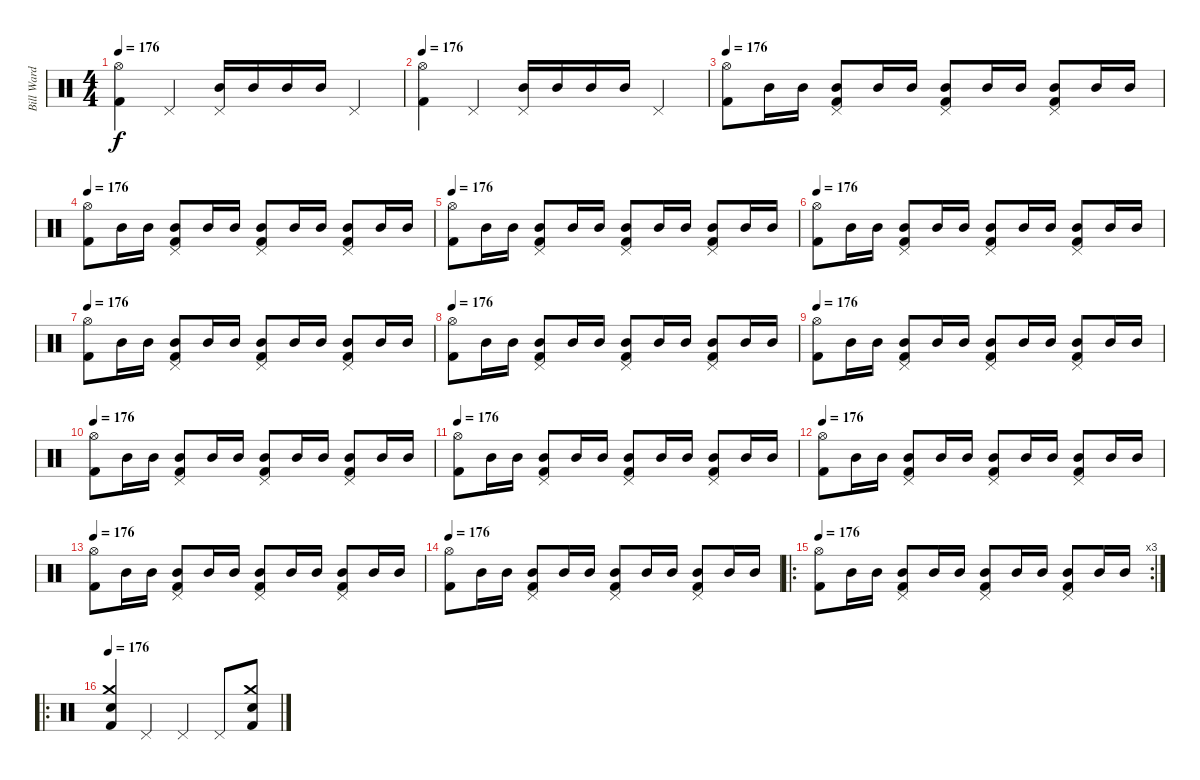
\track ("Bill Ward" "Bill Ward") {instrument percussion}
\staff {score}
\articulation defaults
\ts (4 4)
\tempo 176
\clef neutral
\ks c
("Hi-Hat (open)" "Kick (hit) 2").4{dy f} "Pedal Hi-Hat (hit)".4 ("Pedal Hi-Hat (hit)" "Mid Tom (hit)").16 "Mid Tom (hit)".16 "Mid Tom (hit)".16 "Mid Tom (hit)".16 "Pedal Hi-Hat (hit)".4 |
\tempo 176
("Hi-Hat (open)" "Kick (hit) 2").4 "Pedal Hi-Hat (hit)".4 ("Pedal Hi-Hat (hit)" "Mid Tom (hit)").16 "Mid Tom (hit)".16 "Mid Tom (hit)".16 "Mid Tom (hit)".16 "Pedal Hi-Hat (hit)".4 |
\tempo 176
("Hi-Hat (open)" "Kick (hit) 2").8 "Mid Tom (hit)".16 "Mid Tom (hit)".16 ("Pedal Hi-Hat (hit)" "Mid Tom (hit)" "Kick (hit) 2").8 "Mid Tom (hit)".16 "Mid Tom (hit)".16 ("Pedal Hi-Hat (hit)" "Mid Tom (hit)" "Kick (hit) 2").8 "Mid Tom (hit)".16 "Mid Tom (hit)".16 ("Pedal Hi-Hat (hit)" "Mid Tom (hit)" "Kick (hit) 2").8 "Mid Tom (hit)".16 "Mid Tom (hit)".16 |
\tempo 176
("Hi-Hat (open)" "Kick (hit) 2").8 "Mid Tom (hit)".16 "Mid Tom (hit)".16 ("Pedal Hi-Hat (hit)" "Mid Tom (hit)" "Kick (hit) 2").8 "Mid Tom (hit)".16 "Mid Tom (hit)".16 ("Pedal Hi-Hat (hit)" "Mid Tom (hit)" "Kick (hit) 2").8 "Mid Tom (hit)".16 "Mid Tom (hit)".16 ("Pedal Hi-Hat (hit)" "Mid Tom (hit)" "Kick (hit) 2").8 "Mid Tom (hit)".16 "Mid Tom (hit)".16 |
\tempo 176
("Hi-Hat (open)" "Kick (hit) 2").8 "Mid Tom (hit)".16 "Mid Tom (hit)".16 ("Pedal Hi-Hat (hit)" "Mid Tom (hit)" "Kick (hit) 2").8 "Mid Tom (hit)".16 "Mid Tom (hit)".16 ("Pedal Hi-Hat (hit)" "Mid Tom (hit)" "Kick (hit) 2").8 "Mid Tom (hit)".16 "Mid Tom (hit)".16 ("Pedal Hi-Hat (hit)" "Mid Tom (hit)" "Kick (hit) 2").8 "Mid Tom (hit)".16 "Mid Tom (hit)".16 |
\tempo 176
("Hi-Hat (open)" "Kick (hit) 2").8 "Mid Tom (hit)".16 "Mid Tom (hit)".16 ("Pedal Hi-Hat (hit)" "Mid Tom (hit)" "Kick (hit) 2").8 "Mid Tom (hit)".16 "Mid Tom (hit)".16 ("Pedal Hi-Hat (hit)" "Mid Tom (hit)" "Kick (hit) 2").8 "Mid Tom (hit)".16 "Mid Tom (hit)".16 ("Pedal Hi-Hat (hit)" "Mid Tom (hit)" "Kick (hit) 2").8 "Mid Tom (hit)".16 "Mid Tom (hit)".16 |
\tempo 176
("Hi-Hat (open)" "Kick (hit) 2").8 "Mid Tom (hit)".16 "Mid Tom (hit)".16 ("Pedal Hi-Hat (hit)" "Mid Tom (hit)" "Kick (hit) 2").8 "Mid Tom (hit)".16 "Mid Tom (hit)".16 ("Pedal Hi-Hat (hit)" "Mid Tom (hit)" "Kick (hit) 2").8 "Mid Tom (hit)".16 "Mid Tom (hit)".16 ("Pedal Hi-Hat (hit)" "Mid Tom (hit)" "Kick (hit) 2").8 "Mid Tom (hit)".16 "Mid Tom (hit)".16 |
\tempo 176
("Hi-Hat (open)" "Kick (hit) 2").8 "Mid Tom (hit)".16 "Mid Tom (hit)".16 ("Pedal Hi-Hat (hit)" "Mid Tom (hit)" "Kick (hit) 2").8 "Mid Tom (hit)".16 "Mid Tom (hit)".16 ("Pedal Hi-Hat (hit)" "Mid Tom (hit)" "Kick (hit) 2").8 "Mid Tom (hit)".16 "Mid Tom (hit)".16 ("Pedal Hi-Hat (hit)" "Mid Tom (hit)" "Kick (hit) 2").8 "Mid Tom (hit)".16 "Mid Tom (hit)".16 |
\tempo 176
("Hi-Hat (open)" "Kick (hit) 2").8 "Mid Tom (hit)".16 "Mid Tom (hit)".16 ("Pedal Hi-Hat (hit)" "Mid Tom (hit)" "Kick (hit) 2").8 "Mid Tom (hit)".16 "Mid Tom (hit)".16 ("Pedal Hi-Hat (hit)" "Mid Tom (hit)" "Kick (hit) 2").8 "Mid Tom (hit)".16 "Mid Tom (hit)".16 ("Pedal Hi-Hat (hit)" "Mid Tom (hit)" "Kick (hit) 2").8 "Mid Tom (hit)".16 "Mid Tom (hit)".16 |
\tempo 176
("Hi-Hat (open)" "Kick (hit) 2").8 "Mid Tom (hit)".16 "Mid Tom (hit)".16 ("Pedal Hi-Hat (hit)" "Mid Tom (hit)" "Kick (hit) 2").8 "Mid Tom (hit)".16 "Mid Tom (hit)".16 ("Pedal Hi-Hat (hit)" "Mid Tom (hit)" "Kick (hit) 2").8 "Mid Tom (hit)".16 "Mid Tom (hit)".16 ("Pedal Hi-Hat (hit)" "Mid Tom (hit)" "Kick (hit) 2").8 "Mid Tom (hit)".16 "Mid Tom (hit)".16 |
\tempo 176
("Hi-Hat (open)" "Kick (hit) 2").8 "Mid Tom (hit)".16 "Mid Tom (hit)".16 ("Pedal Hi-Hat (hit)" "Mid Tom (hit)" "Kick (hit) 2").8 "Mid Tom (hit)".16 "Mid Tom (hit)".16 ("Pedal Hi-Hat (hit)" "Mid Tom (hit)" "Kick (hit) 2").8 "Mid Tom (hit)".16 "Mid Tom (hit)".16 ("Pedal Hi-Hat (hit)" "Mid Tom (hit)" "Kick (hit) 2").8 "Mid Tom (hit)".16 "Mid Tom (hit)".16 |
\tempo 176
("Hi-Hat (open)" "Kick (hit) 2").8 "Mid Tom (hit)".16 "Mid Tom (hit)".16 ("Pedal Hi-Hat (hit)" "Mid Tom (hit)" "Kick (hit) 2").8 "Mid Tom (hit)".16 "Mid Tom (hit)".16 ("Pedal Hi-Hat (hit)" "Mid Tom (hit)" "Kick (hit) 2").8 "Mid Tom (hit)".16 "Mid Tom (hit)".16 ("Pedal Hi-Hat (hit)" "Mid Tom (hit)" "Kick (hit) 2").8 "Mid Tom (hit)".16 "Mid Tom (hit)".16 |
\tempo 176
("Hi-Hat (open)" "Kick (hit) 2").8 "Mid Tom (hit)".16 "Mid Tom (hit)".16 ("Pedal Hi-Hat (hit)" "Mid Tom (hit)" "Kick (hit) 2").8 "Mid Tom (hit)".16 "Mid Tom (hit)".16 ("Pedal Hi-Hat (hit)" "Mid Tom (hit)" "Kick (hit) 2").8 "Mid Tom (hit)".16 "Mid Tom (hit)".16 ("Pedal Hi-Hat (hit)" "Mid Tom (hit)" "Kick (hit) 2").8 "Mid Tom (hit)".16 "Mid Tom (hit)".16 |
\tempo 176
("Hi-Hat (open)" "Kick (hit) 2").8 "Mid Tom (hit)".16 "Mid Tom (hit)".16 ("Pedal Hi-Hat (hit)" "Mid Tom (hit)" "Kick (hit) 2").8 "Mid Tom (hit)".16 "Mid Tom (hit)".16 ("Pedal Hi-Hat (hit)" "Mid Tom (hit)" "Kick (hit) 2").8 "Mid Tom (hit)".16 "Mid Tom (hit)".16 ("Pedal Hi-Hat (hit)" "Mid Tom (hit)" "Kick (hit) 2").8 "Mid Tom (hit)".16 "Mid Tom (hit)".16 |
\ro
\rc 3
\tempo 176
("Hi-Hat (open)" "Kick (hit) 2").8 "Mid Tom (hit)".16 "Mid Tom (hit)".16 ("Pedal Hi-Hat (hit)" "Mid Tom (hit)" "Kick (hit) 2").8 "Mid Tom (hit)".16 "Mid Tom (hit)".16 ("Pedal Hi-Hat (hit)" "Mid Tom (hit)" "Kick (hit) 2").8 "Mid Tom (hit)".16 "Mid Tom (hit)".16 ("Pedal Hi-Hat (hit)" "Mid Tom (hit)" "Kick (hit) 2").8 "Mid Tom (hit)".16 "Mid Tom (hit)".16 |
\ro
\tempo 176
("Crash medium (hit)" "Snare (hit) 2" "Kick (hit) 2").4 "Pedal Hi-Hat (hit)".4 "Pedal Hi-Hat (hit)".4 "Pedal Hi-Hat (hit)".8 ("Crash medium (hit)" "Snare (hit) 2" "Kick (hit) 2").8
